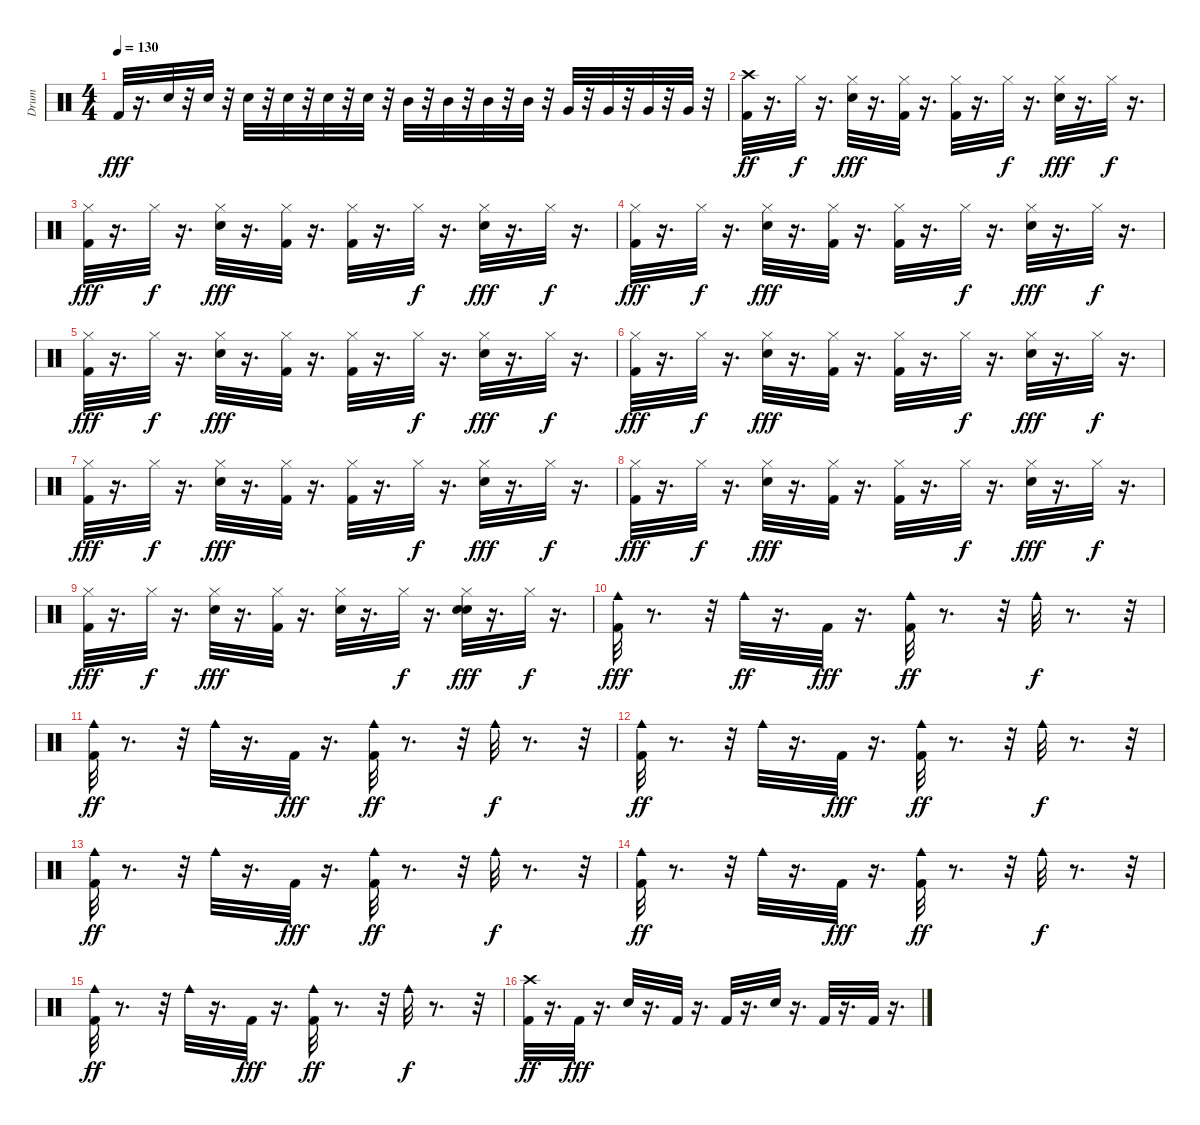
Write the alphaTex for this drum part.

\track ("Drum" "Drum") {instrument percussion}
\staff {score}
\articulation defaults
\ts (4 4)
\tempo 130
\clef neutral
\ks c "Kick (hit) 2".32{dy fff}
r.16{d} "Snare (hit) 2".32 r.32 "Electric Snare (hit)".32 r.32 "Snare (hit) 2".32 r.32 "Electric Snare (hit)".32 r.32 "Snare (hit) 2".32 r.32 "Electric Snare (hit)".32 r.32 "Mid Tom (hit)".32 r.32 "Mid Tom (hit)".32 r.32 "Mid Tom (hit)".32 r.32 "Mid Tom (hit)".32 r.32 "Very Low Tom (hit)".32 r.32 "Very Low Tom (hit)".32 r.32 "Very Low Tom (hit)".32 r.32 "Very Low Tom (hit)".32 r.32 |
("Kick (hit) 2" "Crash high (hit)").32{dy ff} r.16{d} "Hi-Hat (closed)".32{dy f} r.16{d} ("Hi-Hat (closed)" "Electric Snare (hit)").32{dy fff} r.16{d} ("Kick (hit) 2" "Hi-Hat (closed)").32 r.16{d} ("Kick (hit) 2" "Hi-Hat (closed)").32 r.16{d} "Hi-Hat (closed)".32{dy f} r.16{d} ("Hi-Hat (closed)" "Electric Snare (hit)").32{dy fff} r.16{d} "Hi-Hat (closed)".32{dy f} r.16{d} |
("Kick (hit) 2" "Hi-Hat (closed)").32{dy fff} r.16{d} "Hi-Hat (closed)".32{dy f} r.16{d} ("Hi-Hat (closed)" "Electric Snare (hit)").32{dy fff} r.16{d} ("Kick (hit) 2" "Hi-Hat (closed)").32 r.16{d} ("Kick (hit) 2" "Hi-Hat (closed)").32 r.16{d} "Hi-Hat (closed)".32{dy f} r.16{d} ("Hi-Hat (closed)" "Electric Snare (hit)").32{dy fff} r.16{d} "Hi-Hat (closed)".32{dy f} r.16{d} |
("Kick (hit) 2" "Hi-Hat (closed)").32{dy fff} r.16{d} "Hi-Hat (closed)".32{dy f} r.16{d} ("Hi-Hat (closed)" "Electric Snare (hit)").32{dy fff} r.16{d} ("Kick (hit) 2" "Hi-Hat (closed)").32 r.16{d} ("Kick (hit) 2" "Hi-Hat (closed)").32 r.16{d} "Hi-Hat (closed)".32{dy f} r.16{d} ("Hi-Hat (closed)" "Electric Snare (hit)").32{dy fff} r.16{d} "Hi-Hat (closed)".32{dy f} r.16{d} |
("Hi-Hat (closed)" "Kick (hit) 2").32{dy fff} r.16{d} "Hi-Hat (closed)".32{dy f} r.16{d} ("Hi-Hat (closed)" "Electric Snare (hit)").32{dy fff} r.16{d} ("Kick (hit) 2" "Hi-Hat (closed)").32 r.16{d} ("Kick (hit) 2" "Hi-Hat (closed)").32 r.16{d} "Hi-Hat (closed)".32{dy f} r.16{d} ("Hi-Hat (closed)" "Electric Snare (hit)").32{dy fff} r.16{d} "Hi-Hat (closed)".32{dy f} r.16{d} |
("Kick (hit) 2" "Hi-Hat (closed)").32{dy fff} r.16{d} "Hi-Hat (closed)".32{dy f} r.16{d} ("Hi-Hat (closed)" "Electric Snare (hit)").32{dy fff} r.16{d} ("Kick (hit) 2" "Hi-Hat (closed)").32 r.16{d} ("Kick (hit) 2" "Hi-Hat (closed)").32 r.16{d} "Hi-Hat (closed)".32{dy f} r.16{d} ("Hi-Hat (closed)" "Electric Snare (hit)").32{dy fff} r.16{d} "Hi-Hat (closed)".32{dy f} r.16{d} |
("Kick (hit) 2" "Hi-Hat (closed)").32{dy fff} r.16{d} "Hi-Hat (closed)".32{dy f} r.16{d} ("Hi-Hat (closed)" "Electric Snare (hit)").32{dy fff} r.16{d} ("Kick (hit) 2" "Hi-Hat (closed)").32 r.16{d} ("Kick (hit) 2" "Hi-Hat (closed)").32 r.16{d} "Hi-Hat (closed)".32{dy f} r.16{d} ("Hi-Hat (closed)" "Electric Snare (hit)").32{dy fff} r.16{d} "Hi-Hat (closed)".32{dy f} r.16{d} |
("Kick (hit) 2" "Hi-Hat (closed)").32{dy fff} r.16{d} "Hi-Hat (closed)".32{dy f} r.16{d} ("Hi-Hat (closed)" "Electric Snare (hit)").32{dy fff} r.16{d} ("Kick (hit) 2" "Hi-Hat (closed)").32 r.16{d} ("Kick (hit) 2" "Hi-Hat (closed)").32 r.16{d} "Hi-Hat (closed)".32{dy f} r.16{d} ("Hi-Hat (closed)" "Electric Snare (hit)").32{dy fff} r.16{d} "Hi-Hat (closed)".32{dy f} r.16{d} |
("Kick (hit) 2" "Hi-Hat (closed)").32{dy fff} r.16{d} "Hi-Hat (closed)".32{dy f} r.16{d} ("Hi-Hat (closed)" "Electric Snare (hit)").32{dy fff} r.16{d} ("Kick (hit) 2" "Hi-Hat (closed)").32 r.16{d} ("Electric Snare (hit)" "Hi-Hat (closed)").32 r.16{d} "Hi-Hat (closed)".32{dy f} r.16{d} ("Electric Snare (hit)" "Hi-Hat (closed)" "Electric Snare (hit)").32{dy fff} r.16{d} "Hi-Hat (closed)".32{dy f} r.16{d} |
("Cowbell medium (hit)" "Kick (hit) 2").32{dy fff} r.8{d} r.32 "Cowbell medium (hit)".32{dy ff} r.16{d} "Kick (hit) 2".32{dy fff} r.16{d} ("Kick (hit) 2" "Cowbell medium (hit)").32{dy ff} r.8{d} r.32 "Cowbell medium (hit)".32{dy f} r.8{d} r.32 |
("Kick (hit) 2" "Cowbell medium (hit)").32{dy ff} r.8{d} r.32 "Cowbell medium (hit)".32 r.16{d} "Kick (hit) 2".32{dy fff} r.16{d} ("Kick (hit) 2" "Cowbell medium (hit)").32{dy ff} r.8{d} r.32 "Cowbell medium (hit)".32{dy f} r.8{d} r.32 |
("Kick (hit) 2" "Cowbell medium (hit)").32{dy ff} r.8{d} r.32 "Cowbell medium (hit)".32 r.16{d} "Kick (hit) 2".32{dy fff} r.16{d} ("Kick (hit) 2" "Cowbell medium (hit)").32{dy ff} r.8{d} r.32 "Cowbell medium (hit)".32{dy f} r.8{d} r.32 |
("Kick (hit) 2" "Cowbell medium (hit)").32{dy ff} r.8{d} r.32 "Cowbell medium (hit)".32 r.16{d} "Kick (hit) 2".32{dy fff} r.16{d} ("Kick (hit) 2" "Cowbell medium (hit)").32{dy ff} r.8{d} r.32 "Cowbell medium (hit)".32{dy f} r.8{d} r.32 |
("Kick (hit) 2" "Cowbell medium (hit)").32{dy ff} r.8{d} r.32 "Cowbell medium (hit)".32 r.16{d} "Kick (hit) 2".32{dy fff} r.16{d} ("Kick (hit) 2" "Cowbell medium (hit)").32{dy ff} r.8{d} r.32 "Cowbell medium (hit)".32{dy f} r.8{d} r.32 |
("Kick (hit) 2" "Cowbell medium (hit)").32{dy ff} r.8{d} r.32 "Cowbell medium (hit)".32 r.16{d} "Kick (hit) 2".32{dy fff} r.16{d} ("Kick (hit) 2" "Cowbell medium (hit)").32{dy ff} r.8{d} r.32 "Cowbell medium (hit)".32{dy f} r.8{d} r.32 |
("Kick (hit) 2" "Crash high (hit)").32{dy ff} r.16{d} "Kick (hit) 2".32{dy fff} r.16{d} "Electric Snare (hit)".32 r.16{d} "Kick (hit) 2".32 r.16{d} "Kick (hit) 2".32 r.16{d} "Electric Snare (hit)".32 r.16{d} "Kick (hit) 2".32 r.16{d} "Kick (hit) 2".32 r.16{d}
